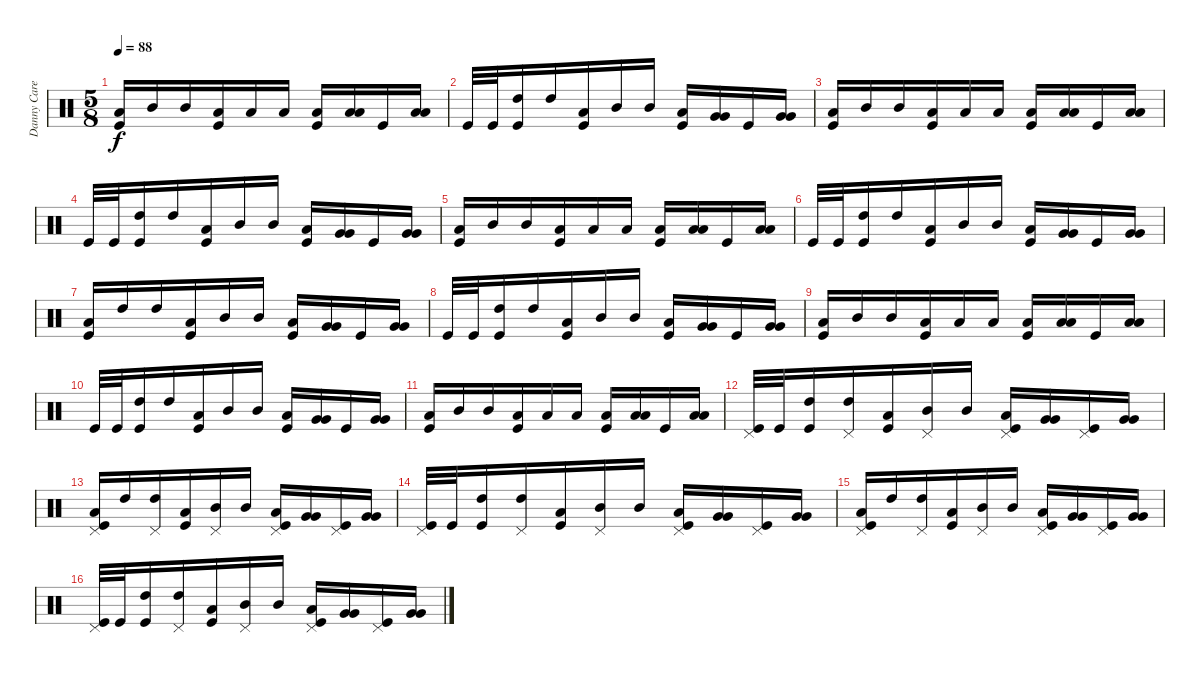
\track ("Danny Carey" "Danny Care") {instrument percussion}
\staff {score}
\articulation defaults
\ts (5 8)
\tempo 88
\clef neutral
\ks c
("Low Floor Tom (hit)" "Kick (hit)").16{dy f} "Mid Tom (hit)".16 "Mid Tom (hit)".16 ("Low Floor Tom (hit)" "Kick (hit)").16 "Low Tom (hit)".16 "Low Tom (hit)".16 ("Low Floor Tom (hit)" "Kick (hit)").16 ("Low Floor Tom (hit)" "Low Floor Tom (hit)").16 "Kick (hit)".16 ("Low Floor Tom (hit)" "Low Floor Tom (hit)").16 |
"Kick (hit)".32 "Kick (hit)".32 ("High Tom (hit)" "Kick (hit)").16 "High Tom (hit)".16 ("Low Floor Tom (hit)" "Kick (hit)").16 "Mid Tom (hit)".16 "Mid Tom (hit)".16 ("Low Floor Tom (hit)" "Kick (hit)").16 ("Very Low Tom (hit)" "Very Low Tom (hit)").16 "Kick (hit)".16 ("Very Low Tom (hit)" "Very Low Tom (hit)").16 |
("Low Floor Tom (hit)" "Kick (hit)").16 "Mid Tom (hit)".16 "Mid Tom (hit)".16 ("Low Floor Tom (hit)" "Kick (hit)").16 "Low Tom (hit)".16 "Low Tom (hit)".16 ("Low Floor Tom (hit)" "Kick (hit)").16 ("Low Floor Tom (hit)" "Low Floor Tom (hit)").16 "Kick (hit)".16 ("Low Floor Tom (hit)" "Low Floor Tom (hit)").16 |
"Kick (hit)".32 "Kick (hit)".32 ("High Tom (hit)" "Kick (hit)").16 "High Tom (hit)".16 ("Low Floor Tom (hit)" "Kick (hit)").16 "Mid Tom (hit)".16 "Mid Tom (hit)".16 ("Low Floor Tom (hit)" "Kick (hit)").16 ("Very Low Tom (hit)" "Very Low Tom (hit)").16 "Kick (hit)".16 ("Very Low Tom (hit)" "Very Low Tom (hit)").16 |
("Low Floor Tom (hit)" "Kick (hit)").16 "Mid Tom (hit)".16 "Mid Tom (hit)".16 ("Low Floor Tom (hit)" "Kick (hit)").16 "Low Tom (hit)".16 "Low Tom (hit)".16 ("Low Floor Tom (hit)" "Kick (hit)").16 ("Low Floor Tom (hit)" "Low Floor Tom (hit)").16 "Kick (hit)".16 ("Low Floor Tom (hit)" "Low Floor Tom (hit)").16 |
"Kick (hit)".32 "Kick (hit)".32 ("High Tom (hit)" "Kick (hit)").16 "High Tom (hit)".16 ("Low Floor Tom (hit)" "Kick (hit)").16 "Mid Tom (hit)".16 "Mid Tom (hit)".16 ("Low Floor Tom (hit)" "Kick (hit)").16 ("Very Low Tom (hit)" "Very Low Tom (hit)").16 "Kick (hit)".16 ("Very Low Tom (hit)" "Very Low Tom (hit)").16 |
("Low Floor Tom (hit)" "Kick (hit)").16 "High Tom (hit)".16 "High Tom (hit)".16 ("Low Floor Tom (hit)" "Kick (hit)").16 "Mid Tom (hit)".16 "Mid Tom (hit)".16 ("Low Floor Tom (hit)" "Kick (hit)").16 ("Very Low Tom (hit)" "Very Low Tom (hit)").16 "Kick (hit)".16 ("Very Low Tom (hit)" "Very Low Tom (hit)").16 |
"Kick (hit)".32 "Kick (hit)".32 ("High Tom (hit)" "Kick (hit)").16 "High Tom (hit)".16 ("Low Floor Tom (hit)" "Kick (hit)").16 "Mid Tom (hit)".16 "Mid Tom (hit)".16 ("Low Floor Tom (hit)" "Kick (hit)").16 ("Very Low Tom (hit)" "Very Low Tom (hit)").16 "Kick (hit)".16 ("Very Low Tom (hit)" "Very Low Tom (hit)").16 |
("Low Floor Tom (hit)" "Kick (hit)").16 "Mid Tom (hit)".16 "Mid Tom (hit)".16 ("Low Floor Tom (hit)" "Kick (hit)").16 "Low Tom (hit)".16 "Low Tom (hit)".16 ("Low Floor Tom (hit)" "Kick (hit)").16 ("Low Floor Tom (hit)" "Low Floor Tom (hit)").16 "Kick (hit)".16 ("Low Floor Tom (hit)" "Low Floor Tom (hit)").16 |
"Kick (hit)".32 "Kick (hit)".32 ("High Tom (hit)" "Kick (hit)").16 "High Tom (hit)".16 ("Low Floor Tom (hit)" "Kick (hit)").16 "Mid Tom (hit)".16 "Mid Tom (hit)".16 ("Low Floor Tom (hit)" "Kick (hit)").16 ("Very Low Tom (hit)" "Very Low Tom (hit)").16 "Kick (hit)".16 ("Very Low Tom (hit)" "Very Low Tom (hit)").16 |
("Low Floor Tom (hit)" "Kick (hit)").16 "Mid Tom (hit)".16 "Mid Tom (hit)".16 ("Low Floor Tom (hit)" "Kick (hit)").16 "Low Tom (hit)".16 "Low Tom (hit)".16 ("Low Floor Tom (hit)" "Kick (hit)").16 ("Low Floor Tom (hit)" "Low Floor Tom (hit)").16 "Kick (hit)".16 ("Low Floor Tom (hit)" "Low Floor Tom (hit)").16 |
("Pedal Hi-Hat (hit)" "Kick (hit)").32 "Kick (hit)".32 ("High Tom (hit)" "Kick (hit)").16 ("Pedal Hi-Hat (hit)" "High Tom (hit)").16 ("Low Floor Tom (hit)" "Kick (hit)").16 ("Pedal Hi-Hat (hit)" "Mid Tom (hit)").16 "Mid Tom (hit)".16 ("Pedal Hi-Hat (hit)" "Low Floor Tom (hit)" "Kick (hit)").16 ("Very Low Tom (hit)" "Very Low Tom (hit)").16 ("Pedal Hi-Hat (hit)" "Kick (hit)").16 ("Very Low Tom (hit)" "Very Low Tom (hit)").16 |
("Pedal Hi-Hat (hit)" "Low Floor Tom (hit)" "Kick (hit)").16 "High Tom (hit)".16 ("Pedal Hi-Hat (hit)" "High Tom (hit)").16 ("Low Floor Tom (hit)" "Kick (hit)").16 ("Pedal Hi-Hat (hit)" "Mid Tom (hit)").16 "Mid Tom (hit)".16 ("Pedal Hi-Hat (hit)" "Low Floor Tom (hit)" "Kick (hit)").16 ("Very Low Tom (hit)" "Very Low Tom (hit)").16 ("Pedal Hi-Hat (hit)" "Kick (hit)").16 ("Very Low Tom (hit)" "Very Low Tom (hit)").16 |
("Pedal Hi-Hat (hit)" "Kick (hit)").32 "Kick (hit)".32 ("High Tom (hit)" "Kick (hit)").16 ("Pedal Hi-Hat (hit)" "High Tom (hit)").16 ("Low Floor Tom (hit)" "Kick (hit)").16 ("Pedal Hi-Hat (hit)" "Mid Tom (hit)").16 "Mid Tom (hit)".16 ("Pedal Hi-Hat (hit)" "Low Floor Tom (hit)" "Kick (hit)").16 ("Very Low Tom (hit)" "Very Low Tom (hit)").16 ("Pedal Hi-Hat (hit)" "Kick (hit)").16 ("Very Low Tom (hit)" "Very Low Tom (hit)").16 |
("Pedal Hi-Hat (hit)" "Low Floor Tom (hit)" "Kick (hit)").16 "High Tom (hit)".16 ("Pedal Hi-Hat (hit)" "High Tom (hit)").16 ("Low Floor Tom (hit)" "Kick (hit)").16 ("Pedal Hi-Hat (hit)" "Mid Tom (hit)").16 "Mid Tom (hit)".16 ("Pedal Hi-Hat (hit)" "Low Floor Tom (hit)" "Kick (hit)").16 ("Very Low Tom (hit)" "Very Low Tom (hit)").16 ("Pedal Hi-Hat (hit)" "Kick (hit)").16 ("Very Low Tom (hit)" "Very Low Tom (hit)").16 |
("Pedal Hi-Hat (hit)" "Kick (hit)").32 "Kick (hit)".32 ("High Tom (hit)" "Kick (hit)").16 ("Pedal Hi-Hat (hit)" "High Tom (hit)").16 ("Low Floor Tom (hit)" "Kick (hit)").16 ("Pedal Hi-Hat (hit)" "Mid Tom (hit)").16 "Mid Tom (hit)".16 ("Pedal Hi-Hat (hit)" "Low Floor Tom (hit)" "Kick (hit)").16 ("Very Low Tom (hit)" "Very Low Tom (hit)").16 ("Pedal Hi-Hat (hit)" "Kick (hit)").16 ("Very Low Tom (hit)" "Very Low Tom (hit)").16
